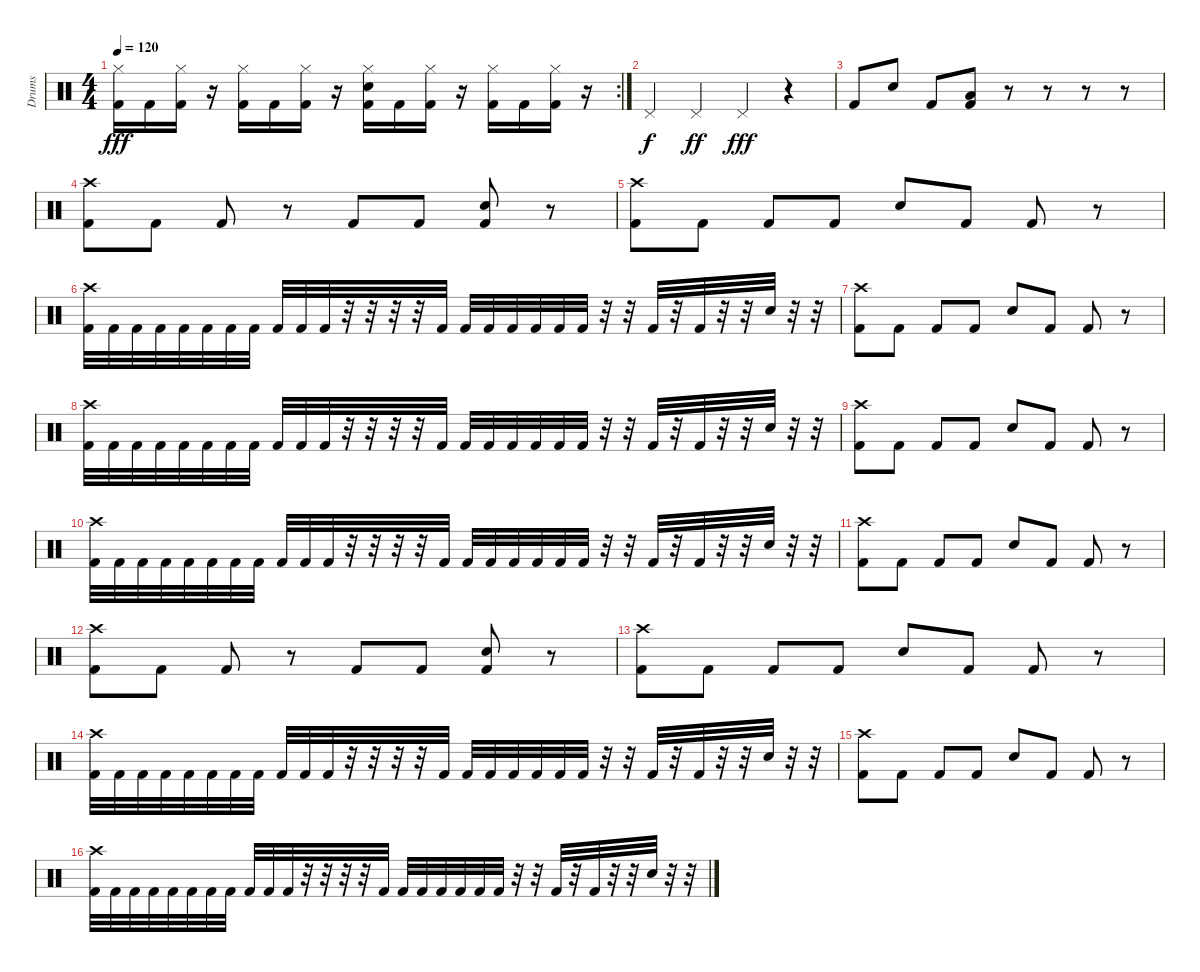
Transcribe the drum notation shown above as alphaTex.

\track ("Drums" "Drums") {instrument percussion}
\staff {score}
\articulation defaults
\rc 2
\ts (4 4)
\tempo 120
\clef neutral
\ks c
("Hi-Hat (closed)" "Kick (hit) 2").16{dy fff} "Kick (hit) 2".16 ("Hi-Hat (closed)" "Kick (hit) 2").16 r.16 ("Hi-Hat (closed)" "Kick (hit) 2").16 "Kick (hit) 2".16 ("Hi-Hat (closed)" "Kick (hit) 2").16 r.16 ("Hi-Hat (closed)" "Snare (hit) 2" "Kick (hit) 2").16 "Kick (hit) 2".16 ("Hi-Hat (closed)" "Kick (hit) 2").16 r.16 ("Hi-Hat (closed)" "Kick (hit) 2").16 "Kick (hit) 2".16 ("Hi-Hat (closed)" "Kick (hit) 2").16 r.16 |
"Pedal Hi-Hat (hit)".4{dy f} "Pedal Hi-Hat (hit)".4{dy ff} "Pedal Hi-Hat (hit)".4{dy fff} r.4 |
"Kick (hit) 2".8 "Snare (hit) 2".8 "Kick (hit) 2".8 ("Low Floor Tom (hit)" "Kick (hit) 2").8 r.8 r.8 r.8 r.8 |
("Crash high (hit)" "Kick (hit) 2").8 "Kick (hit) 2".8 "Kick (hit) 2".8 r.8 "Kick (hit) 2".8 "Kick (hit) 2".8 ("Snare (hit) 2" "Kick (hit) 2").8 r.8 |
("Crash high (hit)" "Kick (hit) 2").8 "Kick (hit) 2".8 "Kick (hit) 2".8 "Kick (hit) 2".8 "Snare (hit) 2".8 "Kick (hit) 2".8 "Kick (hit) 2".8 r.8 |
("Crash high (hit)" "Kick (hit) 2").32 "Kick (hit) 2".32 "Kick (hit) 2".32 "Kick (hit) 2".32 "Kick (hit) 2".32 "Kick (hit) 2".32 "Kick (hit) 2".32 "Kick (hit) 2".32 "Kick (hit) 2".32 "Kick (hit) 2".32 "Kick (hit) 2".32 r.32 r.32 r.32 r.32 "Kick (hit) 2".32 "Kick (hit) 2".32 "Kick (hit) 2".32 "Kick (hit) 2".32 "Kick (hit) 2".32 "Kick (hit) 2".32 "Kick (hit) 2".32 r.32 r.32 "Kick (hit) 2".32 r.32 "Kick (hit) 2".32 r.32 r.32 "Snare (hit) 2".32 r.32 r.32 |
("Crash high (hit)" "Kick (hit) 2").8 "Kick (hit) 2".8 "Kick (hit) 2".8 "Kick (hit) 2".8 "Snare (hit) 2".8 "Kick (hit) 2".8 "Kick (hit) 2".8 r.8 |
("Crash high (hit)" "Kick (hit) 2").32 "Kick (hit) 2".32 "Kick (hit) 2".32 "Kick (hit) 2".32 "Kick (hit) 2".32 "Kick (hit) 2".32 "Kick (hit) 2".32 "Kick (hit) 2".32 "Kick (hit) 2".32 "Kick (hit) 2".32 "Kick (hit) 2".32 r.32 r.32 r.32 r.32 "Kick (hit) 2".32 "Kick (hit) 2".32 "Kick (hit) 2".32 "Kick (hit) 2".32 "Kick (hit) 2".32 "Kick (hit) 2".32 "Kick (hit) 2".32 r.32 r.32 "Kick (hit) 2".32 r.32 "Kick (hit) 2".32 r.32 r.32 "Snare (hit) 2".32 r.32 r.32 |
("Crash high (hit)" "Kick (hit) 2").8 "Kick (hit) 2".8 "Kick (hit) 2".8 "Kick (hit) 2".8 "Snare (hit) 2".8 "Kick (hit) 2".8 "Kick (hit) 2".8 r.8 |
("Crash high (hit)" "Kick (hit) 2").32 "Kick (hit) 2".32 "Kick (hit) 2".32 "Kick (hit) 2".32 "Kick (hit) 2".32 "Kick (hit) 2".32 "Kick (hit) 2".32 "Kick (hit) 2".32 "Kick (hit) 2".32 "Kick (hit) 2".32 "Kick (hit) 2".32 r.32 r.32 r.32 r.32 "Kick (hit) 2".32 "Kick (hit) 2".32 "Kick (hit) 2".32 "Kick (hit) 2".32 "Kick (hit) 2".32 "Kick (hit) 2".32 "Kick (hit) 2".32 r.32 r.32 "Kick (hit) 2".32 r.32 "Kick (hit) 2".32 r.32 r.32 "Snare (hit) 2".32 r.32 r.32 |
("Crash high (hit)" "Kick (hit) 2").8 "Kick (hit) 2".8 "Kick (hit) 2".8 "Kick (hit) 2".8 "Snare (hit) 2".8 "Kick (hit) 2".8 "Kick (hit) 2".8 r.8 |
("Crash high (hit)" "Kick (hit) 2").8 "Kick (hit) 2".8 "Kick (hit) 2".8 r.8 "Kick (hit) 2".8 "Kick (hit) 2".8 ("Snare (hit) 2" "Kick (hit) 2").8 r.8 |
("Crash high (hit)" "Kick (hit) 2").8 "Kick (hit) 2".8 "Kick (hit) 2".8 "Kick (hit) 2".8 "Snare (hit) 2".8 "Kick (hit) 2".8 "Kick (hit) 2".8 r.8 |
("Crash high (hit)" "Kick (hit) 2").32 "Kick (hit) 2".32 "Kick (hit) 2".32 "Kick (hit) 2".32 "Kick (hit) 2".32 "Kick (hit) 2".32 "Kick (hit) 2".32 "Kick (hit) 2".32 "Kick (hit) 2".32 "Kick (hit) 2".32 "Kick (hit) 2".32 r.32 r.32 r.32 r.32 "Kick (hit) 2".32 "Kick (hit) 2".32 "Kick (hit) 2".32 "Kick (hit) 2".32 "Kick (hit) 2".32 "Kick (hit) 2".32 "Kick (hit) 2".32 r.32 r.32 "Kick (hit) 2".32 r.32 "Kick (hit) 2".32 r.32 r.32 "Snare (hit) 2".32 r.32 r.32 |
("Crash high (hit)" "Kick (hit) 2").8 "Kick (hit) 2".8 "Kick (hit) 2".8 "Kick (hit) 2".8 "Snare (hit) 2".8 "Kick (hit) 2".8 "Kick (hit) 2".8 r.8 |
("Crash high (hit)" "Kick (hit) 2").32 "Kick (hit) 2".32 "Kick (hit) 2".32 "Kick (hit) 2".32 "Kick (hit) 2".32 "Kick (hit) 2".32 "Kick (hit) 2".32 "Kick (hit) 2".32 "Kick (hit) 2".32 "Kick (hit) 2".32 "Kick (hit) 2".32 r.32 r.32 r.32 r.32 "Kick (hit) 2".32 "Kick (hit) 2".32 "Kick (hit) 2".32 "Kick (hit) 2".32 "Kick (hit) 2".32 "Kick (hit) 2".32 "Kick (hit) 2".32 r.32 r.32 "Kick (hit) 2".32 r.32 "Kick (hit) 2".32 r.32 r.32 "Snare (hit) 2".32 r.32 r.32
